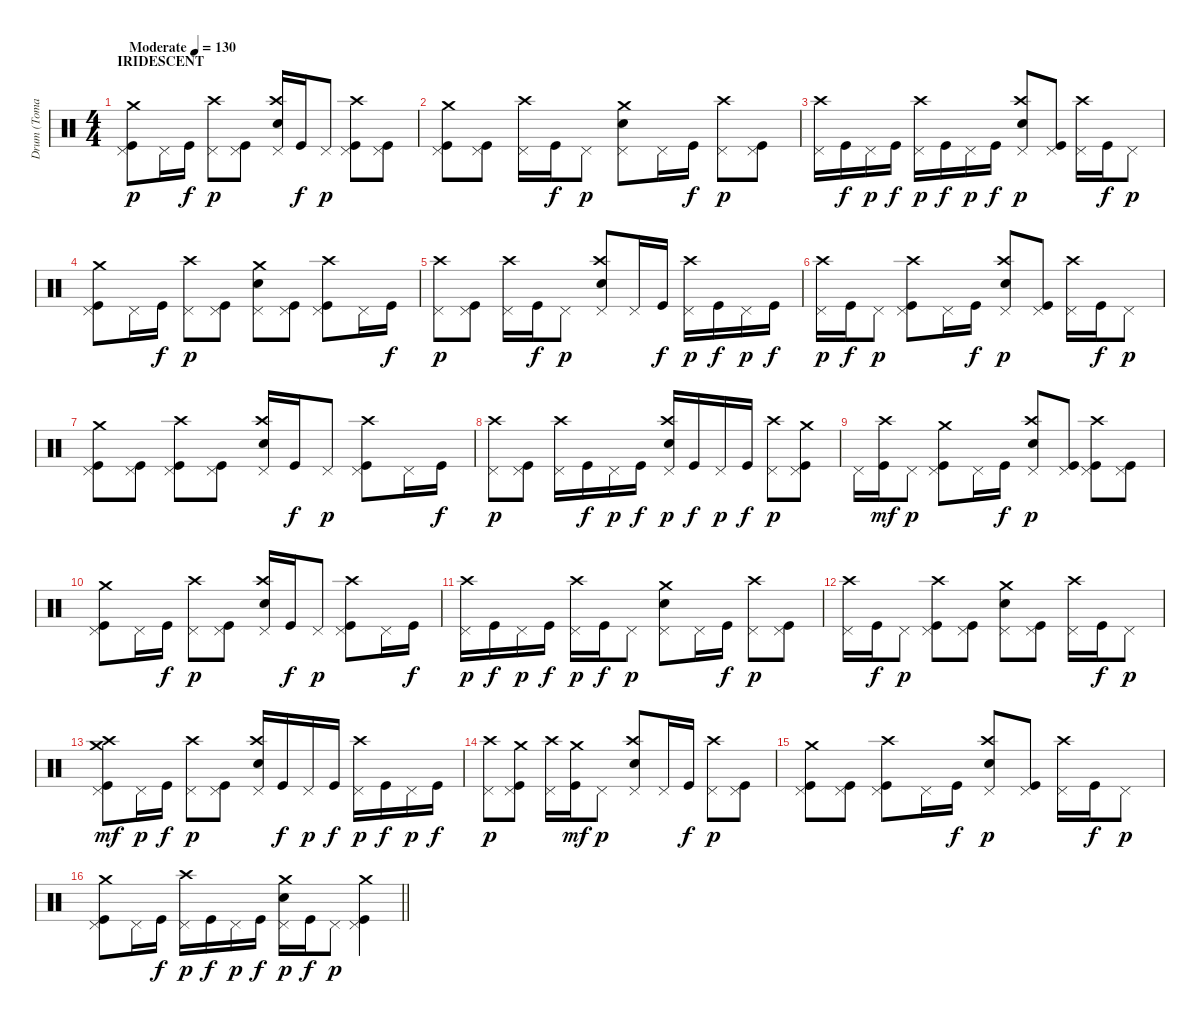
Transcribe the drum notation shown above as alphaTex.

\track ("Drum (Tomas Haake)" "Drum (Toma") {instrument percussion}
\staff {score}
\articulation defaults
\ts (4 4)
\section ("" "IRIDESCENT")
\tempo (130 "Moderate")
\clef neutral
\ks c
("Crash medium (hit)" "Pedal Hi-Hat (hit)" "Kick (hit)").8{dy p} "Pedal Hi-Hat (hit)".16 "Kick (hit)".16{dy f} ("Crash high (hit)" "Pedal Hi-Hat (hit)").8{dy p} ("Pedal Hi-Hat (hit)" "Kick (hit)").8 ("Crash high (hit)" "Pedal Hi-Hat (hit)" "Electric Snare (hit)").16 "Kick (hit)".16{dy f} "Pedal Hi-Hat (hit)".8{dy p} ("Crash high (hit)" "Pedal Hi-Hat (hit)" "Kick (hit)").8 ("Pedal Hi-Hat (hit)" "Kick (hit)").8 |
("Crash medium (hit)" "Pedal Hi-Hat (hit)" "Kick (hit)").8 ("Pedal Hi-Hat (hit)" "Kick (hit)").8 ("Crash high (hit)" "Pedal Hi-Hat (hit)").16 "Kick (hit)".16{dy f} "Pedal Hi-Hat (hit)".8{dy p} ("Crash medium (hit)" "Pedal Hi-Hat (hit)" "Electric Snare (hit)").8 "Pedal Hi-Hat (hit)".16 "Kick (hit)".16{dy f} ("Crash high (hit)" "Pedal Hi-Hat (hit)").8{dy p} ("Pedal Hi-Hat (hit)" "Kick (hit)").8 |
("Crash high (hit)" "Pedal Hi-Hat (hit)").16 "Kick (hit)".16{dy f} "Pedal Hi-Hat (hit)".16{dy p} "Kick (hit)".16{dy f} ("Crash high (hit)" "Pedal Hi-Hat (hit)").16{dy p} "Kick (hit)".16{dy f} "Pedal Hi-Hat (hit)".16{dy p} "Kick (hit)".16{dy f} ("Crash high (hit)" "Pedal Hi-Hat (hit)" "Electric Snare (hit)").8{dy p} ("Pedal Hi-Hat (hit)" "Kick (hit)").8 ("Crash high (hit)" "Pedal Hi-Hat (hit)").16 "Kick (hit)".16{dy f} "Pedal Hi-Hat (hit)".8{dy p} |
("Crash medium (hit)" "Pedal Hi-Hat (hit)" "Kick (hit)").8 "Pedal Hi-Hat (hit)".16 "Kick (hit)".16{dy f} ("Crash high (hit)" "Pedal Hi-Hat (hit)").8{dy p} ("Pedal Hi-Hat (hit)" "Kick (hit)").8 ("Crash medium (hit)" "Pedal Hi-Hat (hit)" "Electric Snare (hit)").8 ("Pedal Hi-Hat (hit)" "Kick (hit)").8 ("Crash high (hit)" "Pedal Hi-Hat (hit)" "Kick (hit)").8 "Pedal Hi-Hat (hit)".16 "Kick (hit)".16{dy f} |
("Crash high (hit)" "Pedal Hi-Hat (hit)").8{dy p} ("Pedal Hi-Hat (hit)" "Kick (hit)").8 ("Crash high (hit)" "Pedal Hi-Hat (hit)").16 "Kick (hit)".16{dy f} "Pedal Hi-Hat (hit)".8{dy p} ("Crash high (hit)" "Pedal Hi-Hat (hit)" "Electric Snare (hit)").8 "Pedal Hi-Hat (hit)".16 "Kick (hit)".16{dy f} ("Crash high (hit)" "Pedal Hi-Hat (hit)").16{dy p} "Kick (hit)".16{dy f} "Pedal Hi-Hat (hit)".16{dy p} "Kick (hit)".16{dy f} |
("Crash high (hit)" "Pedal Hi-Hat (hit)").16{dy p} "Kick (hit)".16{dy f} "Pedal Hi-Hat (hit)".8{dy p} ("Crash high (hit)" "Pedal Hi-Hat (hit)" "Kick (hit)").8 "Pedal Hi-Hat (hit)".16 "Kick (hit)".16{dy f} ("Crash high (hit)" "Pedal Hi-Hat (hit)" "Electric Snare (hit)").8{dy p} ("Pedal Hi-Hat (hit)" "Kick (hit)").8 ("Crash high (hit)" "Pedal Hi-Hat (hit)").16 "Kick (hit)".16{dy f} "Pedal Hi-Hat (hit)".8{dy p} |
("Crash medium (hit)" "Pedal Hi-Hat (hit)" "Kick (hit)").8 ("Pedal Hi-Hat (hit)" "Kick (hit)").8 ("Crash high (hit)" "Pedal Hi-Hat (hit)" "Kick (hit)").8 ("Pedal Hi-Hat (hit)" "Kick (hit)").8 ("Crash high (hit)" "Pedal Hi-Hat (hit)" "Electric Snare (hit)").16 "Kick (hit)".16{dy f} "Pedal Hi-Hat (hit)".8{dy p} ("Crash high (hit)" "Pedal Hi-Hat (hit)" "Kick (hit)").8 "Pedal Hi-Hat (hit)".16 "Kick (hit)".16{dy f} |
("Crash high (hit)" "Pedal Hi-Hat (hit)").8{dy p} ("Pedal Hi-Hat (hit)" "Kick (hit)").8 ("Crash high (hit)" "Pedal Hi-Hat (hit)").16 "Kick (hit)".16{dy f} "Pedal Hi-Hat (hit)".16{dy p} "Kick (hit)".16{dy f} ("Crash high (hit)" "Pedal Hi-Hat (hit)" "Electric Snare (hit)").16{dy p} "Kick (hit)".16{dy f} "Pedal Hi-Hat (hit)".16{dy p} "Kick (hit)".16{dy f} ("Crash high (hit)" "Pedal Hi-Hat (hit)").8{dy p} ("Crash medium (hit)" "Pedal Hi-Hat (hit)" "Kick (hit)").8 |
"Pedal Hi-Hat (hit)".16 ("Crash high (hit)" "Kick (hit)").16{dy mf} "Pedal Hi-Hat (hit)".8{dy p} ("Crash medium (hit)" "Pedal Hi-Hat (hit)" "Kick (hit)").8 "Pedal Hi-Hat (hit)".16 "Kick (hit)".16{dy f} ("Crash high (hit)" "Pedal Hi-Hat (hit)" "Electric Snare (hit)").8{dy p} ("Pedal Hi-Hat (hit)" "Kick (hit)").8 ("Crash high (hit)" "Pedal Hi-Hat (hit)" "Kick (hit)").8 ("Pedal Hi-Hat (hit)" "Kick (hit)").8 |
("Crash medium (hit)" "Pedal Hi-Hat (hit)" "Kick (hit)").8 "Pedal Hi-Hat (hit)".16 "Kick (hit)".16{dy f} ("Crash high (hit)" "Pedal Hi-Hat (hit)").8{dy p} ("Pedal Hi-Hat (hit)" "Kick (hit)").8 ("Crash high (hit)" "Pedal Hi-Hat (hit)" "Electric Snare (hit)").16 "Kick (hit)".16{dy f} "Pedal Hi-Hat (hit)".8{dy p} ("Crash high (hit)" "Pedal Hi-Hat (hit)" "Kick (hit)").8 "Pedal Hi-Hat (hit)".16 "Kick (hit)".16{dy f} |
("Crash high (hit)" "Pedal Hi-Hat (hit)").16{dy p} "Kick (hit)".16{dy f} "Pedal Hi-Hat (hit)".16{dy p} "Kick (hit)".16{dy f} ("Crash high (hit)" "Pedal Hi-Hat (hit)").16{dy p} "Kick (hit)".16{dy f} "Pedal Hi-Hat (hit)".8{dy p} ("Crash medium (hit)" "Pedal Hi-Hat (hit)" "Electric Snare (hit)").8 "Pedal Hi-Hat (hit)".16 "Kick (hit)".16{dy f} ("Crash high (hit)" "Pedal Hi-Hat (hit)").8{dy p} ("Pedal Hi-Hat (hit)" "Kick (hit)").8 |
("Crash high (hit)" "Pedal Hi-Hat (hit)").16 "Kick (hit)".16{dy f} "Pedal Hi-Hat (hit)".8{dy p} ("Crash high (hit)" "Pedal Hi-Hat (hit)" "Kick (hit)").8 ("Pedal Hi-Hat (hit)" "Kick (hit)").8 ("Crash medium (hit)" "Pedal Hi-Hat (hit)" "Electric Snare (hit)").8 ("Pedal Hi-Hat (hit)" "Kick (hit)").8 ("Crash high (hit)" "Pedal Hi-Hat (hit)").16 "Kick (hit)".16{dy f} "Pedal Hi-Hat (hit)".8{dy p} |
("Crash medium (hit)" "Pedal Hi-Hat (hit)" "Crash high (hit)" "Kick (hit)").8{dy mf} "Pedal Hi-Hat (hit)".16{dy p} "Kick (hit)".16{dy f} ("Crash high (hit)" "Pedal Hi-Hat (hit)").8{dy p} ("Pedal Hi-Hat (hit)" "Kick (hit)").8 ("Crash high (hit)" "Pedal Hi-Hat (hit)" "Electric Snare (hit)").16 "Kick (hit)".16{dy f} "Pedal Hi-Hat (hit)".16{dy p} "Kick (hit)".16{dy f} ("Crash high (hit)" "Pedal Hi-Hat (hit)").16{dy p} "Kick (hit)".16{dy f} "Pedal Hi-Hat (hit)".16{dy p} "Kick (hit)".16{dy f} |
("Crash high (hit)" "Pedal Hi-Hat (hit)").8{dy p} ("Crash medium (hit)" "Pedal Hi-Hat (hit)" "Kick (hit)").8 ("Crash high (hit)" "Pedal Hi-Hat (hit)").16 ("Crash medium (hit)" "Kick (hit)").16{dy mf} "Pedal Hi-Hat (hit)".8{dy p} ("Crash high (hit)" "Pedal Hi-Hat (hit)" "Electric Snare (hit)").8 "Pedal Hi-Hat (hit)".16 "Kick (hit)".16{dy f} ("Crash high (hit)" "Pedal Hi-Hat (hit)").8{dy p} ("Pedal Hi-Hat (hit)" "Kick (hit)").8 |
("Crash medium (hit)" "Pedal Hi-Hat (hit)" "Kick (hit)").8 ("Pedal Hi-Hat (hit)" "Kick (hit)").8 ("Crash high (hit)" "Pedal Hi-Hat (hit)" "Kick (hit)").8 "Pedal Hi-Hat (hit)".16 "Kick (hit)".16{dy f} ("Crash high (hit)" "Pedal Hi-Hat (hit)" "Electric Snare (hit)").8{dy p} ("Pedal Hi-Hat (hit)" "Kick (hit)").8 ("Crash high (hit)" "Pedal Hi-Hat (hit)").16 "Kick (hit)".16{dy f} "Pedal Hi-Hat (hit)".8{dy p} |
\barLineRight lightlight
("Crash medium (hit)" "Pedal Hi-Hat (hit)" "Kick (hit)").8 "Pedal Hi-Hat (hit)".16 "Kick (hit)".16{dy f} ("Crash high (hit)" "Pedal Hi-Hat (hit)").16{dy p} "Kick (hit)".16{dy f} "Pedal Hi-Hat (hit)".16{dy p} "Kick (hit)".16{dy f} ("Crash medium (hit)" "Pedal Hi-Hat (hit)" "Electric Snare (hit)").16{dy p} "Kick (hit)".16{dy f} "Pedal Hi-Hat (hit)".8{dy p} ("Crash medium (hit)" "Pedal Hi-Hat (hit)" "Kick (hit)").4
